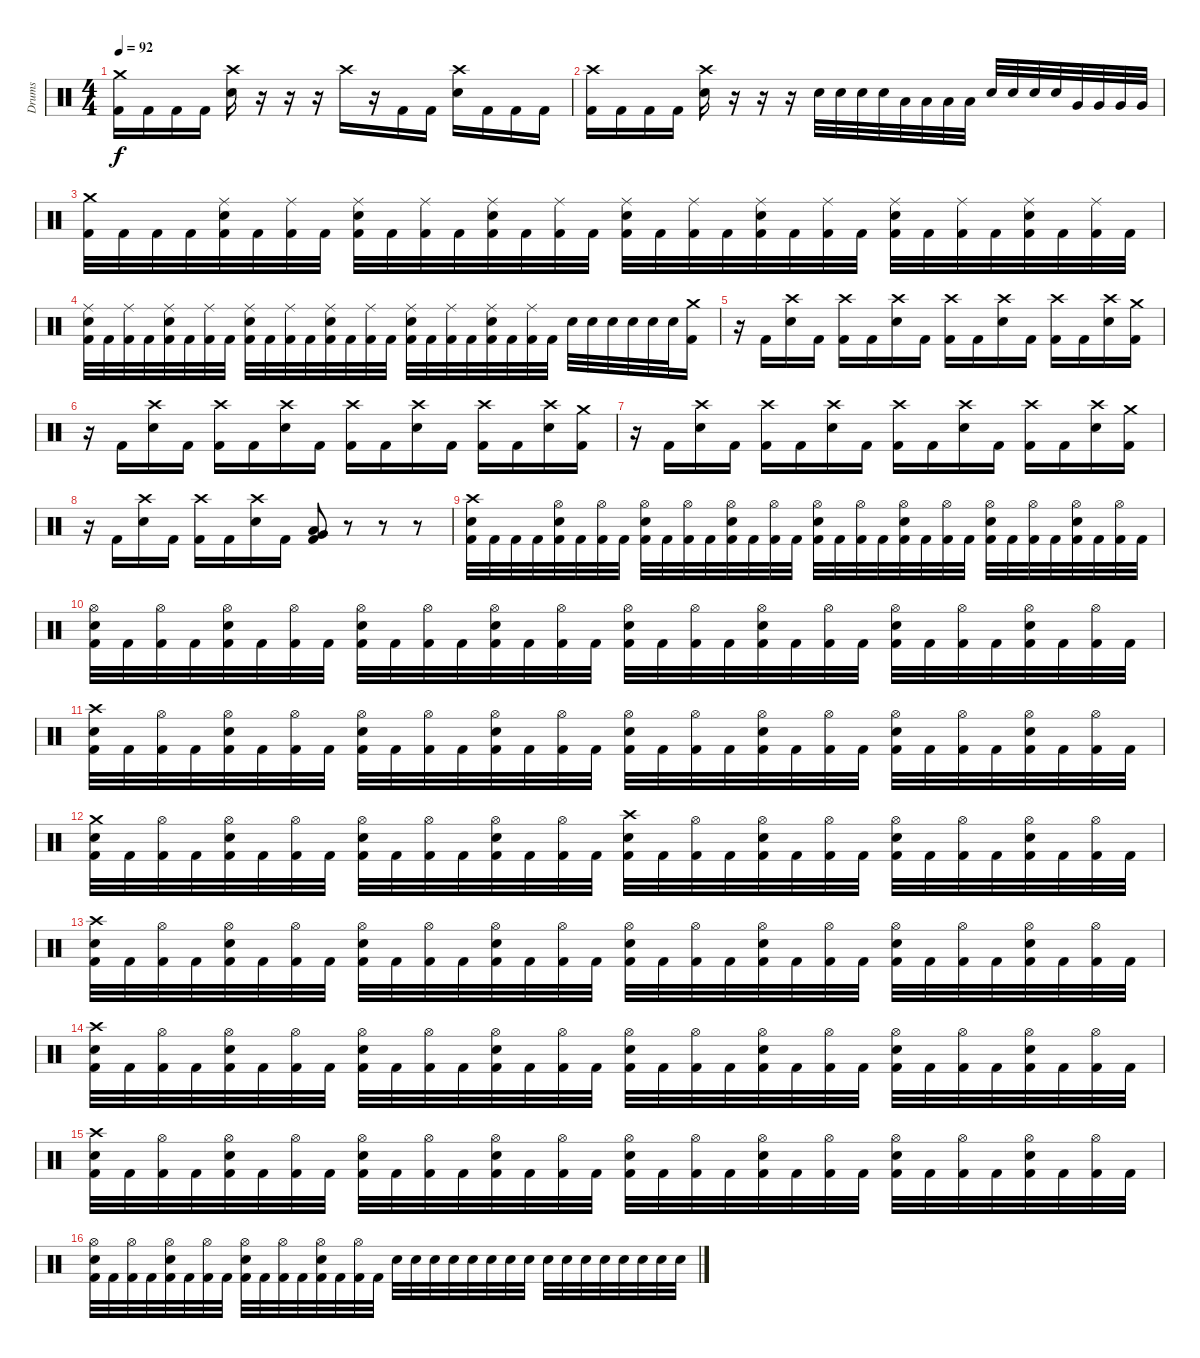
\track ("Drums" "Drums") {instrument percussion}
\staff {score}
\articulation defaults
\ts (4 4)
\tempo 92
\clef neutral
\ks c
("Crash medium (hit)" "Kick (hit) 2").16{dy f} "Kick (hit) 2".16 "Kick (hit) 2".16 "Kick (hit) 2".16 ("Crash high (hit)" "Electric Snare (hit)").16 r.16 r.16 r.16 "Crash high (hit)".16 r.16 "Kick (hit) 2".16 "Kick (hit) 2".16 ("Crash high (hit)" "Electric Snare (hit)").16 "Kick (hit) 2".16 "Kick (hit) 2".16 "Kick (hit) 2".16 |
("Crash high (hit)" "Kick (hit) 2").16 "Kick (hit) 2".16 "Kick (hit) 2".16 "Kick (hit) 2".16 ("Crash high (hit)" "Electric Snare (hit)").16 r.16 r.16 r.16 "Electric Snare (hit)".32 "Electric Snare (hit)".32 "Electric Snare (hit)".32 "Electric Snare (hit)".32 "Low Tom (hit)".32 "Low Tom (hit)".32 "Low Tom (hit)".32 "Low Tom (hit)".32 "Electric Snare (hit)".32 "Electric Snare (hit)".32 "Electric Snare (hit)".32 "Electric Snare (hit)".32 "Very Low Tom (hit)".32 "Very Low Tom (hit)".32 "Very Low Tom (hit)".32 "Very Low Tom (hit)".32 |
("Crash medium (hit)" "Kick (hit) 2").32 "Kick (hit) 2".32 "Kick (hit) 2".32 "Kick (hit) 2".32 ("Ride (middle)" "Electric Snare (hit)" "Kick (hit) 2").32 "Kick (hit) 2".32 ("Ride (middle)" "Kick (hit) 2").32 "Kick (hit) 2".32 ("Ride (middle)" "Electric Snare (hit)" "Kick (hit) 2").32 "Kick (hit) 2".32 ("Ride (middle)" "Kick (hit) 2").32 "Kick (hit) 2".32 ("Ride (middle)" "Electric Snare (hit)" "Kick (hit) 2").32 "Kick (hit) 2".32 ("Ride (middle)" "Kick (hit) 2").32 "Kick (hit) 2".32 ("Ride (middle)" "Electric Snare (hit)" "Kick (hit) 2").32 "Kick (hit) 2".32 ("Ride (middle)" "Kick (hit) 2").32 "Kick (hit) 2".32 ("Ride (middle)" "Electric Snare (hit)" "Kick (hit) 2").32 "Kick (hit) 2".32 ("Ride (middle)" "Kick (hit) 2").32 "Kick (hit) 2".32 ("Ride (middle)" "Electric Snare (hit)" "Kick (hit) 2").32 "Kick (hit) 2".32 ("Ride (middle)" "Kick (hit) 2").32 "Kick (hit) 2".32 ("Ride (middle)" "Electric Snare (hit)" "Kick (hit) 2").32 "Kick (hit) 2".32 ("Ride (middle)" "Kick (hit) 2").32 "Kick (hit) 2".32 |
("Ride (middle)" "Electric Snare (hit)" "Kick (hit) 2").32 "Kick (hit) 2".32 ("Ride (middle)" "Kick (hit) 2").32 "Kick (hit) 2".32 ("Ride (middle)" "Electric Snare (hit)" "Kick (hit) 2").32 "Kick (hit) 2".32 ("Ride (middle)" "Kick (hit) 2").32 "Kick (hit) 2".32 ("Ride (middle)" "Electric Snare (hit)" "Kick (hit) 2").32 "Kick (hit) 2".32 ("Ride (middle)" "Kick (hit) 2").32 "Kick (hit) 2".32 ("Ride (middle)" "Electric Snare (hit)" "Kick (hit) 2").32 "Kick (hit) 2".32 ("Ride (middle)" "Kick (hit) 2").32 "Kick (hit) 2".32 ("Ride (middle)" "Electric Snare (hit)" "Kick (hit) 2").32 "Kick (hit) 2".32 ("Ride (middle)" "Kick (hit) 2").32 "Kick (hit) 2".32 ("Ride (middle)" "Electric Snare (hit)" "Kick (hit) 2").32 "Kick (hit) 2".32 ("Ride (middle)" "Kick (hit) 2").32 "Kick (hit) 2".32 "Electric Snare (hit)".32 "Electric Snare (hit)".32 "Electric Snare (hit)".32 "Electric Snare (hit)".32 "Electric Snare (hit)".32 "Electric Snare (hit)".32 ("Crash medium (hit)" "Kick (hit) 2").16 |
r.16 "Kick (hit) 2".16 ("Crash high (hit)" "Electric Snare (hit)").16 "Kick (hit) 2".16 ("Crash high (hit)" "Kick (hit) 2").16 "Kick (hit) 2".16 ("Crash high (hit)" "Electric Snare (hit)").16 "Kick (hit) 2".16 ("Crash high (hit)" "Kick (hit) 2").16 "Kick (hit) 2".16 ("Crash high (hit)" "Electric Snare (hit)").16 "Kick (hit) 2".16 ("Crash high (hit)" "Kick (hit) 2").16 "Kick (hit) 2".16 ("Crash high (hit)" "Electric Snare (hit)").16 ("Crash medium (hit)" "Kick (hit) 2").16 |
r.16 "Kick (hit) 2".16 ("Crash high (hit)" "Electric Snare (hit)").16 "Kick (hit) 2".16 ("Crash high (hit)" "Kick (hit) 2").16 "Kick (hit) 2".16 ("Crash high (hit)" "Electric Snare (hit)").16 "Kick (hit) 2".16 ("Crash high (hit)" "Kick (hit) 2").16 "Kick (hit) 2".16 ("Crash high (hit)" "Electric Snare (hit)").16 "Kick (hit) 2".16 ("Crash high (hit)" "Kick (hit) 2").16 "Kick (hit) 2".16 ("Crash high (hit)" "Electric Snare (hit)").16 ("Crash medium (hit)" "Kick (hit) 2").16 |
r.16 "Kick (hit) 2".16 ("Crash high (hit)" "Electric Snare (hit)").16 "Kick (hit) 2".16 ("Crash high (hit)" "Kick (hit) 2").16 "Kick (hit) 2".16 ("Crash high (hit)" "Electric Snare (hit)").16 "Kick (hit) 2".16 ("Crash high (hit)" "Kick (hit) 2").16 "Kick (hit) 2".16 ("Crash high (hit)" "Electric Snare (hit)").16 "Kick (hit) 2".16 ("Crash high (hit)" "Kick (hit) 2").16 "Kick (hit) 2".16 ("Crash high (hit)" "Electric Snare (hit)").16 ("Crash medium (hit)" "Kick (hit) 2").16 |
r.16 "Kick (hit) 2".16 ("Crash high (hit)" "Electric Snare (hit)").16 "Kick (hit) 2".16 ("Crash high (hit)" "Kick (hit) 2").16 "Kick (hit) 2".16 ("Crash high (hit)" "Electric Snare (hit)").16 "Kick (hit) 2".16 ("Low Tom (hit)" "Very Low Tom (hit)" "Kick (hit) 2").8 r.8 r.8 r.8 |
("Crash high (hit)" "Electric Snare (hit)" "Kick (hit) 2").32 "Kick (hit) 2".32 "Kick (hit) 2".32 "Kick (hit) 2".32 ("Hi-Hat (open)" "Electric Snare (hit)" "Kick (hit) 2").32 "Kick (hit) 2".32 ("Hi-Hat (open)" "Kick (hit) 2").32 "Kick (hit) 2".32 ("Hi-Hat (open)" "Electric Snare (hit)" "Kick (hit) 2").32 "Kick (hit) 2".32 ("Hi-Hat (open)" "Kick (hit) 2").32 "Kick (hit) 2".32 ("Hi-Hat (open)" "Electric Snare (hit)" "Kick (hit) 2").32 "Kick (hit) 2".32 ("Hi-Hat (open)" "Kick (hit) 2").32 "Kick (hit) 2".32 ("Hi-Hat (open)" "Electric Snare (hit)" "Kick (hit) 2").32 "Kick (hit) 2".32 ("Hi-Hat (open)" "Kick (hit) 2").32 "Kick (hit) 2".32 ("Hi-Hat (open)" "Electric Snare (hit)" "Kick (hit) 2").32 "Kick (hit) 2".32 ("Hi-Hat (open)" "Kick (hit) 2").32 "Kick (hit) 2".32 ("Hi-Hat (open)" "Electric Snare (hit)" "Kick (hit) 2").32 "Kick (hit) 2".32 ("Hi-Hat (open)" "Kick (hit) 2").32 "Kick (hit) 2".32 ("Hi-Hat (open)" "Electric Snare (hit)" "Kick (hit) 2").32 "Kick (hit) 2".32 ("Hi-Hat (open)" "Kick (hit) 2").32 "Kick (hit) 2".32 |
("Hi-Hat (open)" "Electric Snare (hit)" "Kick (hit) 2").32 "Kick (hit) 2".32 ("Hi-Hat (open)" "Kick (hit) 2").32 "Kick (hit) 2".32 ("Hi-Hat (open)" "Electric Snare (hit)" "Kick (hit) 2").32 "Kick (hit) 2".32 ("Hi-Hat (open)" "Kick (hit) 2").32 "Kick (hit) 2".32 ("Hi-Hat (open)" "Electric Snare (hit)" "Kick (hit) 2").32 "Kick (hit) 2".32 ("Hi-Hat (open)" "Kick (hit) 2").32 "Kick (hit) 2".32 ("Hi-Hat (open)" "Electric Snare (hit)" "Kick (hit) 2").32 "Kick (hit) 2".32 ("Hi-Hat (open)" "Kick (hit) 2").32 "Kick (hit) 2".32 ("Hi-Hat (open)" "Electric Snare (hit)" "Kick (hit) 2").32 "Kick (hit) 2".32 ("Hi-Hat (open)" "Kick (hit) 2").32 "Kick (hit) 2".32 ("Hi-Hat (open)" "Electric Snare (hit)" "Kick (hit) 2").32 "Kick (hit) 2".32 ("Hi-Hat (open)" "Kick (hit) 2").32 "Kick (hit) 2".32 ("Hi-Hat (open)" "Electric Snare (hit)" "Kick (hit) 2").32 "Kick (hit) 2".32 ("Hi-Hat (open)" "Kick (hit) 2").32 "Kick (hit) 2".32 ("Hi-Hat (open)" "Electric Snare (hit)" "Kick (hit) 2").32 "Kick (hit) 2".32 ("Hi-Hat (open)" "Kick (hit) 2").32 "Kick (hit) 2".32 |
("Crash high (hit)" "Electric Snare (hit)" "Kick (hit) 2").32 "Kick (hit) 2".32 ("Hi-Hat (open)" "Kick (hit) 2").32 "Kick (hit) 2".32 ("Hi-Hat (open)" "Electric Snare (hit)" "Kick (hit) 2").32 "Kick (hit) 2".32 ("Hi-Hat (open)" "Kick (hit) 2").32 "Kick (hit) 2".32 ("Hi-Hat (open)" "Electric Snare (hit)" "Kick (hit) 2").32 "Kick (hit) 2".32 ("Hi-Hat (open)" "Kick (hit) 2").32 "Kick (hit) 2".32 ("Hi-Hat (open)" "Electric Snare (hit)" "Kick (hit) 2").32 "Kick (hit) 2".32 ("Hi-Hat (open)" "Kick (hit) 2").32 "Kick (hit) 2".32 ("Hi-Hat (open)" "Electric Snare (hit)" "Kick (hit) 2").32 "Kick (hit) 2".32 ("Hi-Hat (open)" "Kick (hit) 2").32 "Kick (hit) 2".32 ("Hi-Hat (open)" "Electric Snare (hit)" "Kick (hit) 2").32 "Kick (hit) 2".32 ("Hi-Hat (open)" "Kick (hit) 2").32 "Kick (hit) 2".32 ("Hi-Hat (open)" "Electric Snare (hit)" "Kick (hit) 2").32 "Kick (hit) 2".32 ("Hi-Hat (open)" "Kick (hit) 2").32 "Kick (hit) 2".32 ("Hi-Hat (open)" "Electric Snare (hit)" "Kick (hit) 2").32 "Kick (hit) 2".32 ("Hi-Hat (open)" "Kick (hit) 2").32 "Kick (hit) 2".32 |
("Crash medium (hit)" "Electric Snare (hit)" "Kick (hit) 2").32 "Kick (hit) 2".32 ("Hi-Hat (open)" "Kick (hit) 2").32 "Kick (hit) 2".32 ("Hi-Hat (open)" "Electric Snare (hit)" "Kick (hit) 2").32 "Kick (hit) 2".32 ("Hi-Hat (open)" "Kick (hit) 2").32 "Kick (hit) 2".32 ("Hi-Hat (open)" "Electric Snare (hit)" "Kick (hit) 2").32 "Kick (hit) 2".32 ("Hi-Hat (open)" "Kick (hit) 2").32 "Kick (hit) 2".32 ("Hi-Hat (open)" "Electric Snare (hit)" "Kick (hit) 2").32 "Kick (hit) 2".32 ("Hi-Hat (open)" "Kick (hit) 2").32 "Kick (hit) 2".32 ("Crash high (hit)" "Electric Snare (hit)" "Kick (hit) 2").32 "Kick (hit) 2".32 ("Hi-Hat (open)" "Kick (hit) 2").32 "Kick (hit) 2".32 ("Hi-Hat (open)" "Electric Snare (hit)" "Kick (hit) 2").32 "Kick (hit) 2".32 ("Hi-Hat (open)" "Kick (hit) 2").32 "Kick (hit) 2".32 ("Hi-Hat (open)" "Electric Snare (hit)" "Kick (hit) 2").32 "Kick (hit) 2".32 ("Hi-Hat (open)" "Kick (hit) 2").32 "Kick (hit) 2".32 ("Hi-Hat (open)" "Electric Snare (hit)" "Kick (hit) 2").32 "Kick (hit) 2".32 ("Hi-Hat (open)" "Kick (hit) 2").32 "Kick (hit) 2".32 |
("Crash high (hit)" "Electric Snare (hit)" "Kick (hit) 2").32 "Kick (hit) 2".32 ("Hi-Hat (open)" "Kick (hit) 2").32 "Kick (hit) 2".32 ("Hi-Hat (open)" "Electric Snare (hit)" "Kick (hit) 2").32 "Kick (hit) 2".32 ("Hi-Hat (open)" "Kick (hit) 2").32 "Kick (hit) 2".32 ("Hi-Hat (open)" "Electric Snare (hit)" "Kick (hit) 2").32 "Kick (hit) 2".32 ("Hi-Hat (open)" "Kick (hit) 2").32 "Kick (hit) 2".32 ("Hi-Hat (open)" "Electric Snare (hit)" "Kick (hit) 2").32 "Kick (hit) 2".32 ("Hi-Hat (open)" "Kick (hit) 2").32 "Kick (hit) 2".32 ("Hi-Hat (open)" "Electric Snare (hit)" "Kick (hit) 2").32 "Kick (hit) 2".32 ("Hi-Hat (open)" "Kick (hit) 2").32 "Kick (hit) 2".32 ("Hi-Hat (open)" "Electric Snare (hit)" "Kick (hit) 2").32 "Kick (hit) 2".32 ("Hi-Hat (open)" "Kick (hit) 2").32 "Kick (hit) 2".32 ("Hi-Hat (open)" "Electric Snare (hit)" "Kick (hit) 2").32 "Kick (hit) 2".32 ("Hi-Hat (open)" "Kick (hit) 2").32 "Kick (hit) 2".32 ("Hi-Hat (open)" "Electric Snare (hit)" "Kick (hit) 2").32 "Kick (hit) 2".32 ("Hi-Hat (open)" "Kick (hit) 2").32 "Kick (hit) 2".32 |
("Crash high (hit)" "Electric Snare (hit)" "Kick (hit) 2").32 "Kick (hit) 2".32 ("Hi-Hat (open)" "Kick (hit) 2").32 "Kick (hit) 2".32 ("Hi-Hat (open)" "Electric Snare (hit)" "Kick (hit) 2").32 "Kick (hit) 2".32 ("Hi-Hat (open)" "Kick (hit) 2").32 "Kick (hit) 2".32 ("Hi-Hat (open)" "Electric Snare (hit)" "Kick (hit) 2").32 "Kick (hit) 2".32 ("Hi-Hat (open)" "Kick (hit) 2").32 "Kick (hit) 2".32 ("Hi-Hat (open)" "Electric Snare (hit)" "Kick (hit) 2").32 "Kick (hit) 2".32 ("Hi-Hat (open)" "Kick (hit) 2").32 "Kick (hit) 2".32 ("Hi-Hat (open)" "Electric Snare (hit)" "Kick (hit) 2").32 "Kick (hit) 2".32 ("Hi-Hat (open)" "Kick (hit) 2").32 "Kick (hit) 2".32 ("Hi-Hat (open)" "Electric Snare (hit)" "Kick (hit) 2").32 "Kick (hit) 2".32 ("Hi-Hat (open)" "Kick (hit) 2").32 "Kick (hit) 2".32 ("Hi-Hat (open)" "Electric Snare (hit)" "Kick (hit) 2").32 "Kick (hit) 2".32 ("Hi-Hat (open)" "Kick (hit) 2").32 "Kick (hit) 2".32 ("Hi-Hat (open)" "Electric Snare (hit)" "Kick (hit) 2").32 "Kick (hit) 2".32 ("Hi-Hat (open)" "Kick (hit) 2").32 "Kick (hit) 2".32 |
("Crash high (hit)" "Electric Snare (hit)" "Kick (hit) 2").32 "Kick (hit) 2".32 ("Hi-Hat (open)" "Kick (hit) 2").32 "Kick (hit) 2".32 ("Hi-Hat (open)" "Electric Snare (hit)" "Kick (hit) 2").32 "Kick (hit) 2".32 ("Hi-Hat (open)" "Kick (hit) 2").32 "Kick (hit) 2".32 ("Hi-Hat (open)" "Electric Snare (hit)" "Kick (hit) 2").32 "Kick (hit) 2".32 ("Hi-Hat (open)" "Kick (hit) 2").32 "Kick (hit) 2".32 ("Hi-Hat (open)" "Electric Snare (hit)" "Kick (hit) 2").32 "Kick (hit) 2".32 ("Hi-Hat (open)" "Kick (hit) 2").32 "Kick (hit) 2".32 ("Hi-Hat (open)" "Electric Snare (hit)" "Kick (hit) 2").32 "Kick (hit) 2".32 ("Hi-Hat (open)" "Kick (hit) 2").32 "Kick (hit) 2".32 ("Hi-Hat (open)" "Electric Snare (hit)" "Kick (hit) 2").32 "Kick (hit) 2".32 ("Hi-Hat (open)" "Kick (hit) 2").32 "Kick (hit) 2".32 ("Hi-Hat (open)" "Electric Snare (hit)" "Kick (hit) 2").32 "Kick (hit) 2".32 ("Hi-Hat (open)" "Kick (hit) 2").32 "Kick (hit) 2".32 ("Hi-Hat (open)" "Electric Snare (hit)" "Kick (hit) 2").32 "Kick (hit) 2".32 ("Hi-Hat (open)" "Kick (hit) 2").32 "Kick (hit) 2".32 |
("Hi-Hat (open)" "Electric Snare (hit)" "Kick (hit) 2").32 "Kick (hit) 2".32 ("Hi-Hat (open)" "Kick (hit) 2").32 "Kick (hit) 2".32 ("Hi-Hat (open)" "Electric Snare (hit)" "Kick (hit) 2").32 "Kick (hit) 2".32 ("Hi-Hat (open)" "Kick (hit) 2").32 "Kick (hit) 2".32 ("Hi-Hat (open)" "Electric Snare (hit)" "Kick (hit) 2").32 "Kick (hit) 2".32 ("Hi-Hat (open)" "Kick (hit) 2").32 "Kick (hit) 2".32 ("Hi-Hat (open)" "Electric Snare (hit)" "Kick (hit) 2").32 "Kick (hit) 2".32 ("Hi-Hat (open)" "Kick (hit) 2").32 "Kick (hit) 2".32 "Electric Snare (hit)".32 "Electric Snare (hit)".32 "Electric Snare (hit)".32 "Electric Snare (hit)".32 "Electric Snare (hit)".32 "Electric Snare (hit)".32 "Electric Snare (hit)".32 "Electric Snare (hit)".32 "Electric Snare (hit)".32 "Electric Snare (hit)".32 "Electric Snare (hit)".32 "Electric Snare (hit)".32 "Electric Snare (hit)".32 "Electric Snare (hit)".32 "Electric Snare (hit)".32 "Electric Snare (hit)".32
